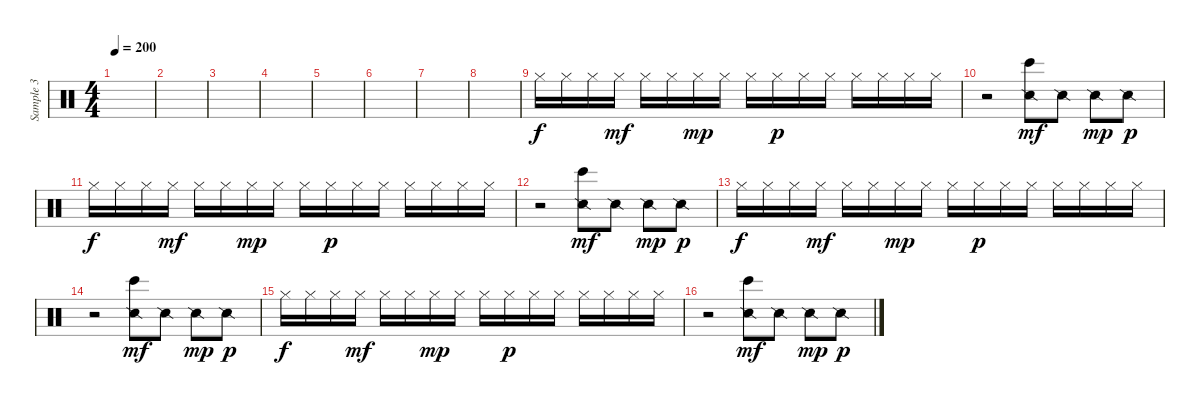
\track ("Sample 3" "Sample 3") {instrument percussion}
\staff {score}
\articulation defaults
\ts (4 4)
\tempo 200
\clef neutral
\ks c
|
|
|
|
|
|
|
|
"Hi-Hat (closed)".16 "Hi-Hat (closed)".16 "Hi-Hat (closed)".16 "Hi-Hat (closed)".16{dy mf} "Hi-Hat (closed)".16 "Hi-Hat (closed)".16 "Hi-Hat (closed)".16{dy mp} "Hi-Hat (closed)".16 "Hi-Hat (closed)".16 "Hi-Hat (closed)".16{dy p} "Hi-Hat (closed)".16 "Hi-Hat (closed)".16 "Hi-Hat (closed)".16 "Hi-Hat (closed)".16 "Hi-Hat (closed)".16 "Hi-Hat (closed)".16 |
r.2 ("Snare (side stick) 2" "Bongo High (hit)").8{dy mf} "Snare (side stick) 2".8 "Snare (side stick) 2".8{dy mp} "Snare (side stick) 2".8{dy p} |
"Hi-Hat (closed)".16{dy f} "Hi-Hat (closed)".16 "Hi-Hat (closed)".16 "Hi-Hat (closed)".16{dy mf} "Hi-Hat (closed)".16 "Hi-Hat (closed)".16 "Hi-Hat (closed)".16{dy mp} "Hi-Hat (closed)".16 "Hi-Hat (closed)".16 "Hi-Hat (closed)".16{dy p} "Hi-Hat (closed)".16 "Hi-Hat (closed)".16 "Hi-Hat (closed)".16 "Hi-Hat (closed)".16 "Hi-Hat (closed)".16 "Hi-Hat (closed)".16 |
r.2 ("Snare (side stick) 2" "Bongo High (hit)").8{dy mf} "Snare (side stick) 2".8 "Snare (side stick) 2".8{dy mp} "Snare (side stick) 2".8{dy p} |
"Hi-Hat (closed)".16{dy f} "Hi-Hat (closed)".16 "Hi-Hat (closed)".16 "Hi-Hat (closed)".16{dy mf} "Hi-Hat (closed)".16 "Hi-Hat (closed)".16 "Hi-Hat (closed)".16{dy mp} "Hi-Hat (closed)".16 "Hi-Hat (closed)".16 "Hi-Hat (closed)".16{dy p} "Hi-Hat (closed)".16 "Hi-Hat (closed)".16 "Hi-Hat (closed)".16 "Hi-Hat (closed)".16 "Hi-Hat (closed)".16 "Hi-Hat (closed)".16 |
r.2 ("Snare (side stick) 2" "Bongo High (hit)").8{dy mf} "Snare (side stick) 2".8 "Snare (side stick) 2".8{dy mp} "Snare (side stick) 2".8{dy p} |
"Hi-Hat (closed)".16{dy f} "Hi-Hat (closed)".16 "Hi-Hat (closed)".16 "Hi-Hat (closed)".16{dy mf} "Hi-Hat (closed)".16 "Hi-Hat (closed)".16 "Hi-Hat (closed)".16{dy mp} "Hi-Hat (closed)".16 "Hi-Hat (closed)".16 "Hi-Hat (closed)".16{dy p} "Hi-Hat (closed)".16 "Hi-Hat (closed)".16 "Hi-Hat (closed)".16 "Hi-Hat (closed)".16 "Hi-Hat (closed)".16 "Hi-Hat (closed)".16 |
r.2 ("Snare (side stick) 2" "Bongo High (hit)").8{dy mf} "Snare (side stick) 2".8 "Snare (side stick) 2".8{dy mp} "Snare (side stick) 2".8{dy p}
